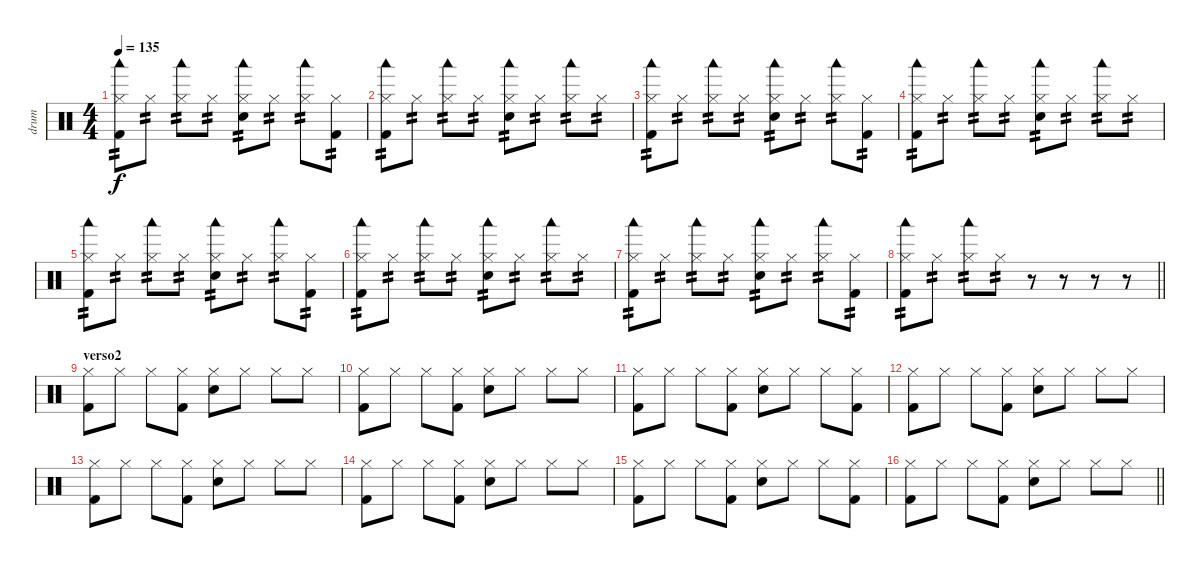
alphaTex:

\track ("drum" "drum") {instrument percussion}
\staff {score}
\articulation defaults
\ts (4 4)
\tempo 135
\clef neutral
\ks c
("Hi-Hat (closed)" "Woodblock low (hit)" "Kick (hit) 2").8{tp 2 dy f} "Hi-Hat (closed)".8{tp 2} ("Hi-Hat (closed)" "Woodblock low (hit)").8{tp 2} "Hi-Hat (closed)".8{tp 2} ("Hi-Hat (closed)" "Woodblock low (hit)" "Snare (hit) 2").8{tp 2} "Hi-Hat (closed)".8{tp 2} ("Hi-Hat (closed)" "Woodblock low (hit)").8{tp 2} ("Hi-Hat (closed)" "Kick (hit) 2").8{tp 2} |
("Hi-Hat (closed)" "Woodblock low (hit)" "Kick (hit) 2").8{tp 2} "Hi-Hat (closed)".8{tp 2} ("Hi-Hat (closed)" "Woodblock low (hit)").8{tp 2} "Hi-Hat (closed)".8{tp 2} ("Hi-Hat (closed)" "Woodblock low (hit)" "Snare (hit) 2").8{tp 2} "Hi-Hat (closed)".8{tp 2} ("Hi-Hat (closed)" "Woodblock low (hit)").8{tp 2} "Hi-Hat (closed)".8{tp 2} |
("Hi-Hat (closed)" "Woodblock low (hit)" "Kick (hit) 2").8{tp 2} "Hi-Hat (closed)".8{tp 2} ("Hi-Hat (closed)" "Woodblock low (hit)").8{tp 2} "Hi-Hat (closed)".8{tp 2} ("Hi-Hat (closed)" "Woodblock low (hit)" "Snare (hit) 2").8{tp 2} "Hi-Hat (closed)".8{tp 2} ("Hi-Hat (closed)" "Woodblock low (hit)").8{tp 2} ("Hi-Hat (closed)" "Kick (hit) 2").8{tp 2} |
("Hi-Hat (closed)" "Woodblock low (hit)" "Kick (hit) 2").8{tp 2} "Hi-Hat (closed)".8{tp 2} ("Hi-Hat (closed)" "Woodblock low (hit)").8{tp 2} "Hi-Hat (closed)".8{tp 2} ("Hi-Hat (closed)" "Woodblock low (hit)" "Snare (hit) 2").8{tp 2} "Hi-Hat (closed)".8{tp 2} ("Hi-Hat (closed)" "Woodblock low (hit)").8{tp 2} "Hi-Hat (closed)".8{tp 2} |
("Hi-Hat (closed)" "Woodblock low (hit)" "Kick (hit) 2").8{tp 2} "Hi-Hat (closed)".8{tp 2} ("Hi-Hat (closed)" "Woodblock low (hit)").8{tp 2} "Hi-Hat (closed)".8{tp 2} ("Hi-Hat (closed)" "Woodblock low (hit)" "Snare (hit) 2").8{tp 2} "Hi-Hat (closed)".8{tp 2} ("Hi-Hat (closed)" "Woodblock low (hit)").8{tp 2} ("Hi-Hat (closed)" "Kick (hit) 2").8{tp 2} |
("Hi-Hat (closed)" "Woodblock low (hit)" "Kick (hit) 2").8{tp 2} "Hi-Hat (closed)".8{tp 2} ("Hi-Hat (closed)" "Woodblock low (hit)").8{tp 2} "Hi-Hat (closed)".8{tp 2} ("Hi-Hat (closed)" "Woodblock low (hit)" "Snare (hit) 2").8{tp 2} "Hi-Hat (closed)".8{tp 2} ("Hi-Hat (closed)" "Woodblock low (hit)").8{tp 2} "Hi-Hat (closed)".8{tp 2} |
("Hi-Hat (closed)" "Woodblock low (hit)" "Kick (hit) 2").8{tp 2} "Hi-Hat (closed)".8{tp 2} ("Hi-Hat (closed)" "Woodblock low (hit)").8{tp 2} "Hi-Hat (closed)".8{tp 2} ("Hi-Hat (closed)" "Woodblock low (hit)" "Snare (hit) 2").8{tp 2} "Hi-Hat (closed)".8{tp 2} ("Hi-Hat (closed)" "Woodblock low (hit)").8{tp 2} ("Hi-Hat (closed)" "Kick (hit) 2").8{tp 2} |
\barLineRight lightlight
("Hi-Hat (closed)" "Woodblock low (hit)" "Kick (hit) 2").8{tp 2} "Hi-Hat (closed)".8{tp 2} ("Hi-Hat (closed)" "Woodblock low (hit)").8{tp 2} "Hi-Hat (closed)".8{tp 2} r.8 r.8 r.8 r.8 |
\section ("" "verso2")
("Hi-Hat (closed)" "Kick (hit) 2").8 "Hi-Hat (closed)".8 "Hi-Hat (closed)".8 ("Hi-Hat (closed)" "Kick (hit) 2").8 ("Hi-Hat (closed)" "Snare (hit) 2").8 "Hi-Hat (closed)".8 "Hi-Hat (closed)".8 "Hi-Hat (closed)".8 |
("Hi-Hat (closed)" "Kick (hit) 2").8 "Hi-Hat (closed)".8 "Hi-Hat (closed)".8 ("Hi-Hat (closed)" "Kick (hit) 2").8 ("Hi-Hat (closed)" "Snare (hit) 2").8 "Hi-Hat (closed)".8 "Hi-Hat (closed)".8 "Hi-Hat (closed)".8 |
("Hi-Hat (closed)" "Kick (hit) 2").8 "Hi-Hat (closed)".8 "Hi-Hat (closed)".8 ("Hi-Hat (closed)" "Kick (hit) 2").8 ("Hi-Hat (closed)" "Snare (hit) 2").8 "Hi-Hat (closed)".8 "Hi-Hat (closed)".8 ("Hi-Hat (closed)" "Kick (hit) 2").8 |
("Hi-Hat (closed)" "Kick (hit) 2").8 "Hi-Hat (closed)".8 "Hi-Hat (closed)".8 ("Hi-Hat (closed)" "Kick (hit) 2").8 ("Hi-Hat (closed)" "Snare (hit) 2").8 "Hi-Hat (closed)".8 "Hi-Hat (closed)".8 "Hi-Hat (closed)".8 |
("Hi-Hat (closed)" "Kick (hit) 2").8 "Hi-Hat (closed)".8 "Hi-Hat (closed)".8 ("Hi-Hat (closed)" "Kick (hit) 2").8 ("Hi-Hat (closed)" "Snare (hit) 2").8 "Hi-Hat (closed)".8 "Hi-Hat (closed)".8 "Hi-Hat (closed)".8 |
("Hi-Hat (closed)" "Kick (hit) 2").8 "Hi-Hat (closed)".8 "Hi-Hat (closed)".8 ("Hi-Hat (closed)" "Kick (hit) 2").8 ("Hi-Hat (closed)" "Snare (hit) 2").8 "Hi-Hat (closed)".8 "Hi-Hat (closed)".8 "Hi-Hat (closed)".8 |
("Hi-Hat (closed)" "Kick (hit) 2").8 "Hi-Hat (closed)".8 "Hi-Hat (closed)".8 ("Hi-Hat (closed)" "Kick (hit) 2").8 ("Hi-Hat (closed)" "Snare (hit) 2").8 "Hi-Hat (closed)".8 "Hi-Hat (closed)".8 ("Hi-Hat (closed)" "Kick (hit) 2").8 |
\barLineRight lightlight
("Hi-Hat (closed)" "Kick (hit) 2").8 "Hi-Hat (closed)".8 "Hi-Hat (closed)".8 ("Hi-Hat (closed)" "Kick (hit) 2").8 ("Hi-Hat (closed)" "Snare (hit) 2").8 "Hi-Hat (closed)".8 "Hi-Hat (closed)".8 "Hi-Hat (closed)".8
